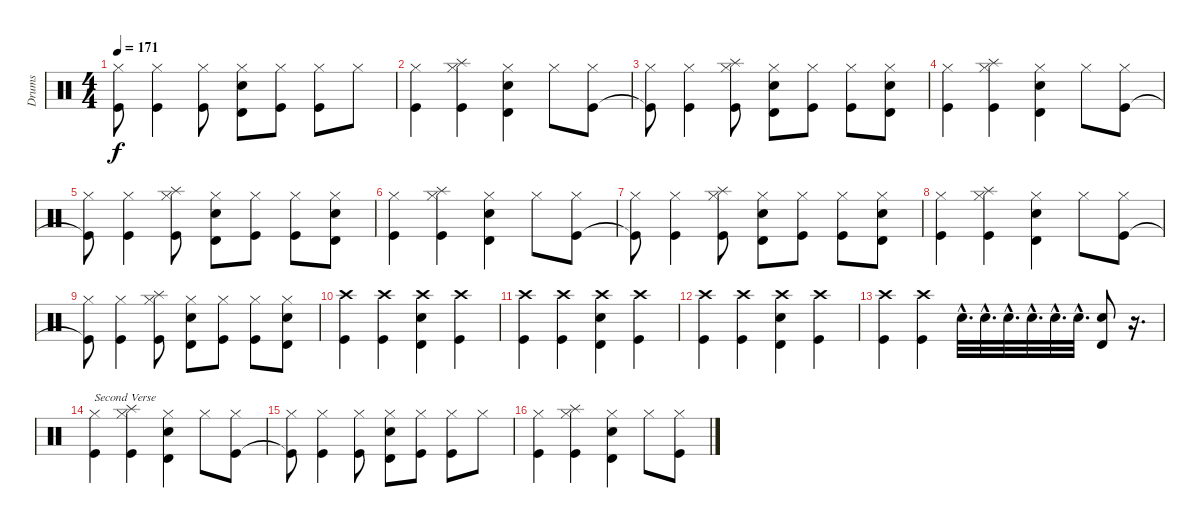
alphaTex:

\track ("Drums" "Drums") {instrument percussion}
\staff {score}
\articulation defaults
\ts (4 4)
\tempo 171
\clef neutral
\ks c
("Hi-Hat (closed)" "Kick (hit)"{t}).8{dy f} ("Hi-Hat (closed)" "Kick (hit)").4 ("Hi-Hat (closed)" "Kick (hit)").8 ("Hi-Hat (closed)" "Timbale high (hit)" "Electric Snare (hit)").8 ("Hi-Hat (closed)" "Kick (hit)").8 ("Hi-Hat (closed)" "Kick (hit)").8 "Hi-Hat (closed)".8 |
("Hi-Hat (closed)" "Kick (hit)").4 ("Hi-Hat (closed)" "Splash (hit)" "Kick (hit)").4 ("Hi-Hat (closed)" "Timbale high (hit)" "Electric Snare (hit)").4 "Hi-Hat (closed)".8 ("Hi-Hat (closed)" "Kick (hit)").8 |
("Hi-Hat (closed)" "Kick (hit)"{t}).8 ("Hi-Hat (closed)" "Kick (hit)").4 ("Hi-Hat (closed)" "Splash (hit)" "Kick (hit)").8 ("Hi-Hat (closed)" "Timbale high (hit)" "Electric Snare (hit)").8 ("Hi-Hat (closed)" "Kick (hit)").8 ("Hi-Hat (closed)" "Kick (hit)").8 ("Hi-Hat (closed)" "Timbale high (hit)" "Electric Snare (hit)").8 |
("Hi-Hat (closed)" "Kick (hit)").4 ("Hi-Hat (closed)" "Splash (hit)" "Kick (hit)").4 ("Hi-Hat (closed)" "Timbale high (hit)" "Electric Snare (hit)").4 "Hi-Hat (closed)".8 ("Hi-Hat (closed)" "Kick (hit)").8 |
("Hi-Hat (closed)" "Kick (hit)"{t}).8 ("Hi-Hat (closed)" "Kick (hit)").4 ("Hi-Hat (closed)" "Splash (hit)" "Kick (hit)").8 ("Hi-Hat (closed)" "Timbale high (hit)" "Electric Snare (hit)").8 ("Hi-Hat (closed)" "Kick (hit)").8 ("Hi-Hat (closed)" "Kick (hit)").8 ("Hi-Hat (closed)" "Timbale high (hit)" "Electric Snare (hit)").8 |
("Hi-Hat (closed)" "Kick (hit)").4 ("Hi-Hat (closed)" "Splash (hit)" "Kick (hit)").4 ("Hi-Hat (closed)" "Timbale high (hit)" "Electric Snare (hit)").4 "Hi-Hat (closed)".8 ("Hi-Hat (closed)" "Kick (hit)").8 |
("Hi-Hat (closed)" "Kick (hit)"{t}).8 ("Hi-Hat (closed)" "Kick (hit)").4 ("Hi-Hat (closed)" "Splash (hit)" "Kick (hit)").8 ("Hi-Hat (closed)" "Timbale high (hit)" "Electric Snare (hit)").8 ("Hi-Hat (closed)" "Kick (hit)").8 ("Hi-Hat (closed)" "Kick (hit)").8 ("Hi-Hat (closed)" "Timbale high (hit)" "Electric Snare (hit)").8 |
("Hi-Hat (closed)" "Kick (hit)").4 ("Hi-Hat (closed)" "Splash (hit)" "Kick (hit)").4 ("Hi-Hat (closed)" "Timbale high (hit)" "Electric Snare (hit)").4 "Hi-Hat (closed)".8 ("Hi-Hat (closed)" "Kick (hit)").8 |
("Hi-Hat (closed)" "Kick (hit)"{t}).8 ("Hi-Hat (closed)" "Kick (hit)").4 ("Hi-Hat (closed)" "Splash (hit)" "Kick (hit)").8 ("Hi-Hat (closed)" "Timbale high (hit)" "Electric Snare (hit)").8 ("Hi-Hat (closed)" "Kick (hit)").8 ("Hi-Hat (closed)" "Kick (hit)").8 ("Hi-Hat (closed)" "Timbale high (hit)" "Electric Snare (hit)").8 |
("Crash high (hit)" "Kick (hit)").4 ("Crash high (hit)" "Kick (hit)").4 ("Crash high (hit)" "Timbale high (hit)" "Electric Snare (hit)").4 ("Crash high (hit)" "Kick (hit)").4 |
("Crash high (hit)" "Kick (hit)").4 ("Crash high (hit)" "Kick (hit)").4 ("Crash high (hit)" "Timbale high (hit)" "Electric Snare (hit)").4 ("Crash high (hit)" "Kick (hit)").4 |
("Crash high (hit)" "Kick (hit)").4 ("Crash high (hit)" "Kick (hit)").4 ("Crash high (hit)" "Timbale high (hit)" "Electric Snare (hit)").4 ("Crash high (hit)" "Kick (hit)").4 |
("Crash high (hit)" "Kick (hit)").4 ("Crash high (hit)" "Kick (hit)").4 "Electric Snare (hit)"{hac}.32{d} "Electric Snare (hit)"{hac}.32{d} "Electric Snare (hit)"{hac}.32{d} "Electric Snare (hit)"{hac}.32{d} "Electric Snare (hit)"{hac}.32{d} "Electric Snare (hit)"{hac}.32{d} ("Electric Snare (hit)" "Timbale high (hit)").8 r.16{d} |
("Hi-Hat (closed)" "Kick (hit)").4{txt "Second Verse"} ("Hi-Hat (closed)" "Splash (hit)" "Kick (hit)").4 ("Hi-Hat (closed)" "Timbale high (hit)" "Electric Snare (hit)").4 "Hi-Hat (closed)".8 ("Hi-Hat (closed)" "Kick (hit)").8 |
("Hi-Hat (closed)" "Kick (hit)"{t}).8 ("Hi-Hat (closed)" "Kick (hit)").4 ("Hi-Hat (closed)" "Kick (hit)").8 ("Hi-Hat (closed)" "Timbale high (hit)" "Electric Snare (hit)").8 ("Hi-Hat (closed)" "Kick (hit)").8 ("Hi-Hat (closed)" "Kick (hit)").8 "Hi-Hat (closed)".8 |
("Hi-Hat (closed)" "Kick (hit)").4 ("Hi-Hat (closed)" "Splash (hit)" "Kick (hit)").4 ("Hi-Hat (closed)" "Timbale high (hit)" "Electric Snare (hit)").4 "Hi-Hat (closed)".8 ("Hi-Hat (closed)" "Kick (hit)").8
